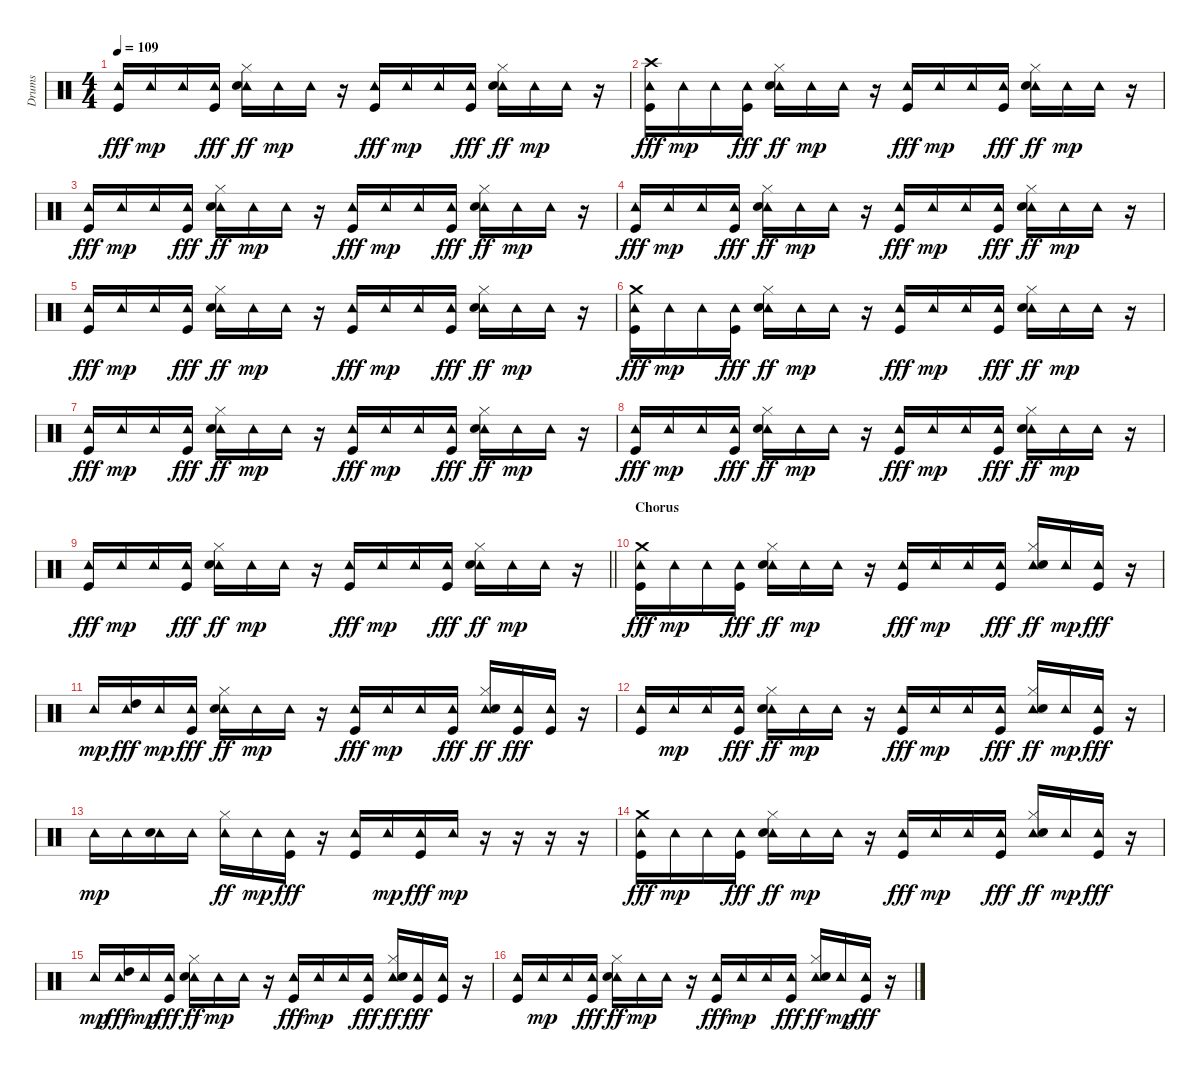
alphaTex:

\track ("Drums" "Drums") {instrument percussion}
\staff {score}
\articulation defaults
\ts (4 4)
\tempo 109
\clef neutral
\ks c
("Tambourine (hit)" "Kick (hit)").16{dy fff} "Tambourine (hit)".16{dy mp} "Tambourine (hit)".16 ("Tambourine (hit)" "Kick (hit)").16{dy fff} ("Tambourine (hit)" "Hi-Hat (closed)" "Electric Snare (hit)").16{dy ff} "Tambourine (hit)".16{dy mp} "Tambourine (hit)".16 r.16 ("Tambourine (hit)" "Kick (hit)").16{dy fff} "Tambourine (hit)".16{dy mp} "Tambourine (hit)".16 ("Tambourine (hit)" "Kick (hit)").16{dy fff} ("Tambourine (hit)" "Hi-Hat (closed)" "Electric Snare (hit)").16{dy ff} "Tambourine (hit)".16{dy mp} "Tambourine (hit)".16 r.16 |
("Crash high (hit)" "Tambourine (hit)" "Kick (hit)").16{dy fff} "Tambourine (hit)".16{dy mp} "Tambourine (hit)".16 ("Tambourine (hit)" "Kick (hit)").16{dy fff} ("Tambourine (hit)" "Hi-Hat (closed)" "Electric Snare (hit)").16{dy ff} "Tambourine (hit)".16{dy mp} "Tambourine (hit)".16 r.16 ("Tambourine (hit)" "Kick (hit)").16{dy fff} "Tambourine (hit)".16{dy mp} "Tambourine (hit)".16 ("Tambourine (hit)" "Kick (hit)").16{dy fff} ("Tambourine (hit)" "Hi-Hat (closed)" "Electric Snare (hit)").16{dy ff} "Tambourine (hit)".16{dy mp} "Tambourine (hit)".16 r.16 |
("Tambourine (hit)" "Kick (hit)").16{dy fff} "Tambourine (hit)".16{dy mp} "Tambourine (hit)".16 ("Tambourine (hit)" "Kick (hit)").16{dy fff} ("Tambourine (hit)" "Hi-Hat (closed)" "Electric Snare (hit)").16{dy ff} "Tambourine (hit)".16{dy mp} "Tambourine (hit)".16 r.16 ("Tambourine (hit)" "Kick (hit)").16{dy fff} "Tambourine (hit)".16{dy mp} "Tambourine (hit)".16 ("Tambourine (hit)" "Kick (hit)").16{dy fff} ("Tambourine (hit)" "Hi-Hat (closed)" "Electric Snare (hit)").16{dy ff} "Tambourine (hit)".16{dy mp} "Tambourine (hit)".16 r.16 |
("Tambourine (hit)" "Kick (hit)").16{dy fff} "Tambourine (hit)".16{dy mp} "Tambourine (hit)".16 ("Tambourine (hit)" "Kick (hit)").16{dy fff} ("Tambourine (hit)" "Hi-Hat (closed)" "Electric Snare (hit)").16{dy ff} "Tambourine (hit)".16{dy mp} "Tambourine (hit)".16 r.16 ("Tambourine (hit)" "Kick (hit)").16{dy fff} "Tambourine (hit)".16{dy mp} "Tambourine (hit)".16 ("Tambourine (hit)" "Kick (hit)").16{dy fff} ("Tambourine (hit)" "Hi-Hat (closed)" "Electric Snare (hit)").16{dy ff} "Tambourine (hit)".16{dy mp} "Tambourine (hit)".16 r.16 |
("Tambourine (hit)" "Kick (hit)").16{dy fff} "Tambourine (hit)".16{dy mp} "Tambourine (hit)".16 ("Tambourine (hit)" "Kick (hit)").16{dy fff} ("Tambourine (hit)" "Hi-Hat (closed)" "Electric Snare (hit)").16{dy ff} "Tambourine (hit)".16{dy mp} "Tambourine (hit)".16 r.16 ("Tambourine (hit)" "Kick (hit)").16{dy fff} "Tambourine (hit)".16{dy mp} "Tambourine (hit)".16 ("Tambourine (hit)" "Kick (hit)").16{dy fff} ("Tambourine (hit)" "Hi-Hat (closed)" "Electric Snare (hit)").16{dy ff} "Tambourine (hit)".16{dy mp} "Tambourine (hit)".16 r.16 |
("Crash medium (hit)" "Tambourine (hit)" "Kick (hit)").16{dy fff} "Tambourine (hit)".16{dy mp} "Tambourine (hit)".16 ("Tambourine (hit)" "Kick (hit)").16{dy fff} ("Tambourine (hit)" "Hi-Hat (closed)" "Electric Snare (hit)").16{dy ff} "Tambourine (hit)".16{dy mp} "Tambourine (hit)".16 r.16 ("Tambourine (hit)" "Kick (hit)").16{dy fff} "Tambourine (hit)".16{dy mp} "Tambourine (hit)".16 ("Tambourine (hit)" "Kick (hit)").16{dy fff} ("Tambourine (hit)" "Hi-Hat (closed)" "Electric Snare (hit)").16{dy ff} "Tambourine (hit)".16{dy mp} "Tambourine (hit)".16 r.16 |
("Tambourine (hit)" "Kick (hit)").16{dy fff} "Tambourine (hit)".16{dy mp} "Tambourine (hit)".16 ("Tambourine (hit)" "Kick (hit)").16{dy fff} ("Tambourine (hit)" "Hi-Hat (closed)" "Electric Snare (hit)").16{dy ff} "Tambourine (hit)".16{dy mp} "Tambourine (hit)".16 r.16 ("Tambourine (hit)" "Kick (hit)").16{dy fff} "Tambourine (hit)".16{dy mp} "Tambourine (hit)".16 ("Tambourine (hit)" "Kick (hit)").16{dy fff} ("Tambourine (hit)" "Hi-Hat (closed)" "Electric Snare (hit)").16{dy ff} "Tambourine (hit)".16{dy mp} "Tambourine (hit)".16 r.16 |
("Tambourine (hit)" "Kick (hit)").16{dy fff} "Tambourine (hit)".16{dy mp} "Tambourine (hit)".16 ("Tambourine (hit)" "Kick (hit)").16{dy fff} ("Tambourine (hit)" "Hi-Hat (closed)" "Electric Snare (hit)").16{dy ff} "Tambourine (hit)".16{dy mp} "Tambourine (hit)".16 r.16 ("Tambourine (hit)" "Kick (hit)").16{dy fff} "Tambourine (hit)".16{dy mp} "Tambourine (hit)".16 ("Tambourine (hit)" "Kick (hit)").16{dy fff} ("Tambourine (hit)" "Hi-Hat (closed)" "Electric Snare (hit)").16{dy ff} "Tambourine (hit)".16{dy mp} "Tambourine (hit)".16 r.16 |
\barLineRight lightlight
("Tambourine (hit)" "Kick (hit)").16{dy fff} "Tambourine (hit)".16{dy mp} "Tambourine (hit)".16 ("Tambourine (hit)" "Kick (hit)").16{dy fff} ("Tambourine (hit)" "Hi-Hat (closed)" "Electric Snare (hit)").16{dy ff} "Tambourine (hit)".16{dy mp} "Tambourine (hit)".16 r.16 ("Tambourine (hit)" "Kick (hit)").16{dy fff} "Tambourine (hit)".16{dy mp} "Tambourine (hit)".16 ("Tambourine (hit)" "Kick (hit)").16{dy fff} ("Tambourine (hit)" "Hi-Hat (closed)" "Electric Snare (hit)").16{dy ff} "Tambourine (hit)".16{dy mp} "Tambourine (hit)".16 r.16 |
\section ("" "Chorus")
("Crash medium (hit)" "Tambourine (hit)" "Kick (hit)").16{dy fff} "Tambourine (hit)".16{dy mp} "Tambourine (hit)".16 ("Tambourine (hit)" "Kick (hit)").16{dy fff} ("Tambourine (hit)" "Hi-Hat (closed)" "Electric Snare (hit)").16{dy ff} "Tambourine (hit)".16{dy mp} "Tambourine (hit)".16 r.16 ("Tambourine (hit)" "Kick (hit)").16{dy fff} "Tambourine (hit)".16{dy mp} "Tambourine (hit)".16 ("Tambourine (hit)" "Kick (hit)").16{dy fff} ("Tambourine (hit)" "Hi-Hat (closed)" "Electric Snare (hit)").16{dy ff} "Tambourine (hit)".16{dy mp} ("Tambourine (hit)" "Kick (hit)").16{dy fff} r.16 |
"Tambourine (hit)".16{dy mp} ("Tambourine (hit)" "High Tom (hit)").16{dy fff} "Tambourine (hit)".16{dy mp} ("Tambourine (hit)" "Kick (hit)").16{dy fff} ("Tambourine (hit)" "Hi-Hat (closed)" "Electric Snare (hit)").16{dy ff} "Tambourine (hit)".16{dy mp} "Tambourine (hit)".16 r.16 ("Tambourine (hit)" "Kick (hit)").16{dy fff} "Tambourine (hit)".16{dy mp} "Tambourine (hit)".16 ("Tambourine (hit)" "Kick (hit)").16{dy fff} ("Tambourine (hit)" "Hi-Hat (closed)" "Electric Snare (hit)").16{dy ff} ("Tambourine (hit)" "Kick (hit)").16{dy fff} ("Tambourine (hit)" "Kick (hit)").16 r.16 |
("Tambourine (hit)" "Kick (hit)").16 "Tambourine (hit)".16{dy mp} "Tambourine (hit)".16 ("Tambourine (hit)" "Kick (hit)").16{dy fff} ("Tambourine (hit)" "Hi-Hat (closed)" "Electric Snare (hit)").16{dy ff} "Tambourine (hit)".16{dy mp} "Tambourine (hit)".16 r.16 ("Tambourine (hit)" "Kick (hit)").16{dy fff} "Tambourine (hit)".16{dy mp} "Tambourine (hit)".16 ("Tambourine (hit)" "Kick (hit)").16{dy fff} ("Tambourine (hit)" "Hi-Hat (closed)" "Electric Snare (hit)").16{dy ff} "Tambourine (hit)".16{dy mp} ("Tambourine (hit)" "Kick (hit)").16{dy fff} r.16 |
"Tambourine (hit)".16{dy mp} "Tambourine (hit)".16 ("Tambourine (hit)" "Electric Snare (hit)").16 "Tambourine (hit)".16 ("Tambourine (hit)" "Hi-Hat (closed)").16{dy ff} "Tambourine (hit)".16{dy mp} ("Tambourine (hit)" "Kick (hit)").16{dy fff} r.16 ("Tambourine (hit)" "Kick (hit)").16 "Tambourine (hit)".16{dy mp} ("Tambourine (hit)" "Kick (hit)").16{dy fff} "Tambourine (hit)".16{dy mp} r.16 r.16 r.16 r.16 |
("Crash medium (hit)" "Tambourine (hit)" "Kick (hit)").16{dy fff} "Tambourine (hit)".16{dy mp} "Tambourine (hit)".16 ("Tambourine (hit)" "Kick (hit)").16{dy fff} ("Tambourine (hit)" "Hi-Hat (closed)" "Electric Snare (hit)").16{dy ff} "Tambourine (hit)".16{dy mp} "Tambourine (hit)".16 r.16 ("Tambourine (hit)" "Kick (hit)").16{dy fff} "Tambourine (hit)".16{dy mp} "Tambourine (hit)".16 ("Tambourine (hit)" "Kick (hit)").16{dy fff} ("Tambourine (hit)" "Hi-Hat (closed)" "Electric Snare (hit)").16{dy ff} "Tambourine (hit)".16{dy mp} ("Tambourine (hit)" "Kick (hit)").16{dy fff} r.16 |
"Tambourine (hit)".16{dy mp} ("Tambourine (hit)" "High Tom (hit)").16{dy fff} "Tambourine (hit)".16{dy mp} ("Tambourine (hit)" "Kick (hit)").16{dy fff} ("Tambourine (hit)" "Hi-Hat (closed)" "Electric Snare (hit)").16{dy ff} "Tambourine (hit)".16{dy mp} "Tambourine (hit)".16 r.16 ("Tambourine (hit)" "Kick (hit)").16{dy fff} "Tambourine (hit)".16{dy mp} "Tambourine (hit)".16 ("Tambourine (hit)" "Kick (hit)").16{dy fff} ("Tambourine (hit)" "Hi-Hat (closed)" "Electric Snare (hit)").16{dy ff} ("Tambourine (hit)" "Kick (hit)").16{dy fff} ("Tambourine (hit)" "Kick (hit)").16 r.16 |
("Tambourine (hit)" "Kick (hit)").16 "Tambourine (hit)".16{dy mp} "Tambourine (hit)".16 ("Tambourine (hit)" "Kick (hit)").16{dy fff} ("Tambourine (hit)" "Hi-Hat (closed)" "Electric Snare (hit)").16{dy ff} "Tambourine (hit)".16{dy mp} "Tambourine (hit)".16 r.16 ("Tambourine (hit)" "Kick (hit)").16{dy fff} "Tambourine (hit)".16{dy mp} "Tambourine (hit)".16 ("Tambourine (hit)" "Kick (hit)").16{dy fff} ("Tambourine (hit)" "Hi-Hat (closed)" "Electric Snare (hit)").16{dy ff} "Tambourine (hit)".16{dy mp} ("Tambourine (hit)" "Kick (hit)").16{dy fff} r.16
